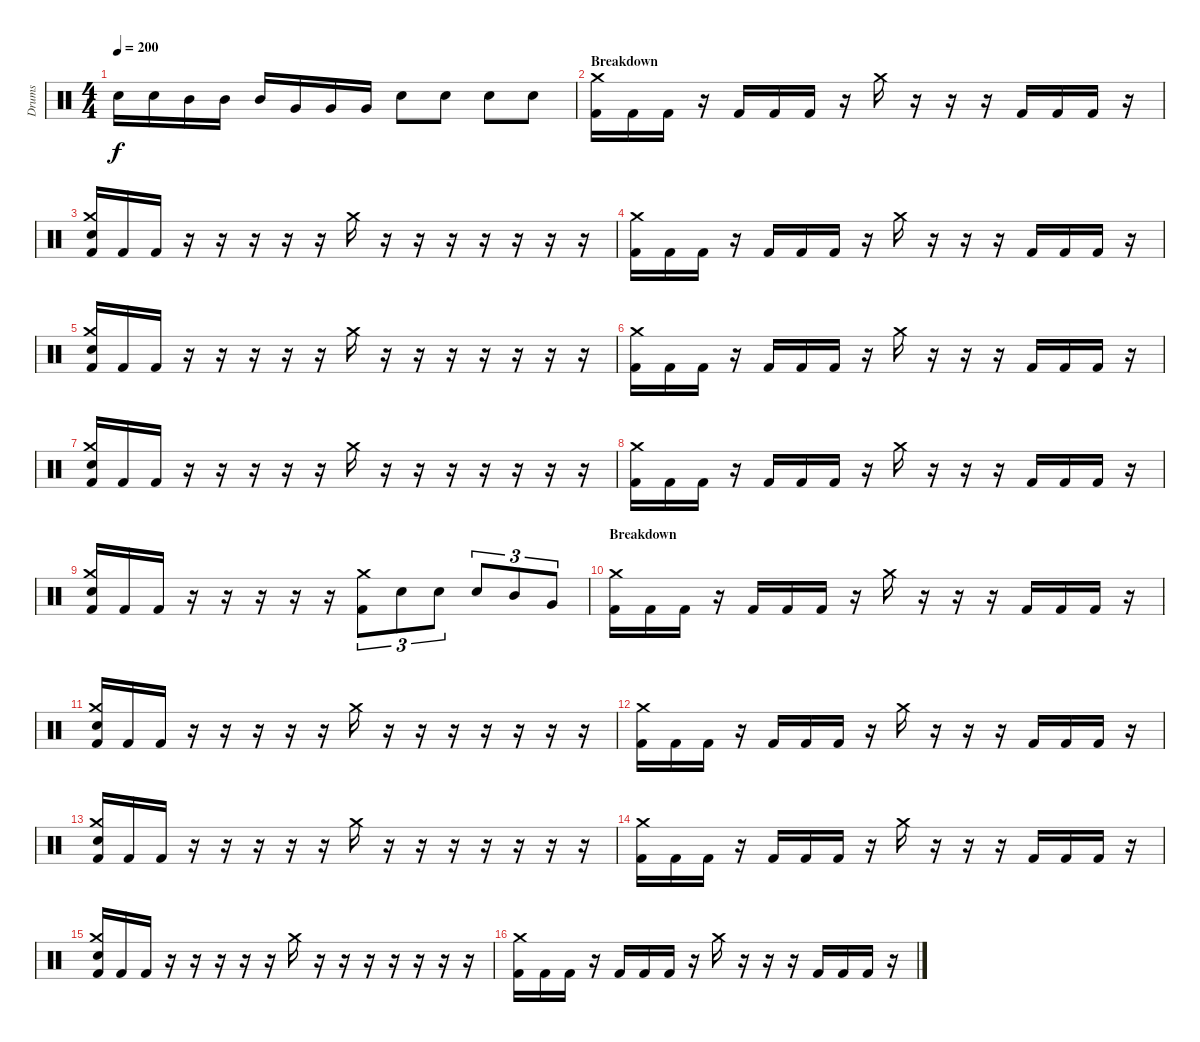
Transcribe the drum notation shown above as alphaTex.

\track ("Drums" "Drums") {instrument percussion}
\staff {score}
\articulation defaults
\ts (4 4)
\tempo 200
\clef neutral
\ks c "Electric Snare (hit)".16{dy f} "Electric Snare (hit)".16 "Mid Tom (hit)".16 "Mid Tom (hit)".16 "Mid Tom (hit)".16 "Very Low Tom (hit)".16 "Very Low Tom (hit)".16 "Very Low Tom (hit)".16 "Electric Snare (hit)".8 "Electric Snare (hit)".8 "Electric Snare (hit)".8 "Electric Snare (hit)".8
|
\section ("" "Breakdown ")
("Crash medium (hit)" "Kick (hit) 2").16 "Kick (hit) 2".16 "Kick (hit) 2".16 r.16 "Kick (hit) 2".16 "Kick (hit) 2".16 "Kick (hit) 2".16 r.16 "Crash medium (hit)".16 r.16 r.16 r.16 "Kick (hit) 2".16 "Kick (hit) 2".16 "Kick (hit) 2".16 r.16 |
("Crash medium (hit)" "Electric Snare (hit)" "Kick (hit) 2").16 "Kick (hit) 2".16 "Kick (hit) 2".16 r.16 r.16 r.16 r.16 r.16 "Crash medium (hit)".16 r.16 r.16 r.16 r.16 r.16 r.16 r.16 |
("Crash medium (hit)" "Kick (hit) 2").16 "Kick (hit) 2".16 "Kick (hit) 2".16 r.16 "Kick (hit) 2".16 "Kick (hit) 2".16 "Kick (hit) 2".16 r.16 "Crash medium (hit)".16 r.16 r.16 r.16 "Kick (hit) 2".16 "Kick (hit) 2".16 "Kick (hit) 2".16 r.16 |
("Crash medium (hit)" "Electric Snare (hit)" "Kick (hit) 2").16 "Kick (hit) 2".16 "Kick (hit) 2".16 r.16 r.16 r.16 r.16 r.16 "Crash medium (hit)".16 r.16 r.16 r.16 r.16 r.16 r.16 r.16 |
("Crash medium (hit)" "Kick (hit) 2").16 "Kick (hit) 2".16 "Kick (hit) 2".16 r.16 "Kick (hit) 2".16 "Kick (hit) 2".16 "Kick (hit) 2".16 r.16 "Crash medium (hit)".16 r.16 r.16 r.16 "Kick (hit) 2".16 "Kick (hit) 2".16 "Kick (hit) 2".16 r.16 |
("Crash medium (hit)" "Electric Snare (hit)" "Kick (hit) 2").16 "Kick (hit) 2".16 "Kick (hit) 2".16 r.16 r.16 r.16 r.16 r.16 "Crash medium (hit)".16 r.16 r.16 r.16 r.16 r.16 r.16 r.16 |
("Crash medium (hit)" "Kick (hit) 2").16 "Kick (hit) 2".16 "Kick (hit) 2".16 r.16 "Kick (hit) 2".16 "Kick (hit) 2".16 "Kick (hit) 2".16 r.16 "Crash medium (hit)".16 r.16 r.16 r.16 "Kick (hit) 2".16 "Kick (hit) 2".16 "Kick (hit) 2".16 r.16 |
("Crash medium (hit)" "Electric Snare (hit)" "Kick (hit) 2").16 "Kick (hit) 2".16 "Kick (hit) 2".16 r.16 r.16 r.16 r.16 r.16 ("Crash medium (hit)" "Kick (hit) 2").8{tu (3 2)} "Electric Snare (hit)".8{tu (3 2)} "Electric Snare (hit)".8{tu (3 2)} "Electric Snare (hit)".8{tu (3 2)} "Mid Tom (hit)".8{tu (3 2)} "Very Low Tom (hit)".8{tu (3 2)} |
\section ("" "Breakdown ")
("Crash medium (hit)" "Kick (hit) 2").16 "Kick (hit) 2".16 "Kick (hit) 2".16 r.16 "Kick (hit) 2".16 "Kick (hit) 2".16 "Kick (hit) 2".16 r.16 "Crash medium (hit)".16 r.16 r.16 r.16 "Kick (hit) 2".16 "Kick (hit) 2".16 "Kick (hit) 2".16 r.16 |
("Crash medium (hit)" "Electric Snare (hit)" "Kick (hit) 2").16 "Kick (hit) 2".16 "Kick (hit) 2".16 r.16 r.16 r.16 r.16 r.16 "Crash medium (hit)".16 r.16 r.16 r.16 r.16 r.16 r.16 r.16 |
("Crash medium (hit)" "Kick (hit) 2").16 "Kick (hit) 2".16 "Kick (hit) 2".16 r.16 "Kick (hit) 2".16 "Kick (hit) 2".16 "Kick (hit) 2".16 r.16 "Crash medium (hit)".16 r.16 r.16 r.16 "Kick (hit) 2".16 "Kick (hit) 2".16 "Kick (hit) 2".16 r.16 |
("Crash medium (hit)" "Electric Snare (hit)" "Kick (hit) 2").16 "Kick (hit) 2".16 "Kick (hit) 2".16 r.16 r.16 r.16 r.16 r.16 "Crash medium (hit)".16 r.16 r.16 r.16 r.16 r.16 r.16 r.16 |
("Crash medium (hit)" "Kick (hit) 2").16 "Kick (hit) 2".16 "Kick (hit) 2".16 r.16 "Kick (hit) 2".16 "Kick (hit) 2".16 "Kick (hit) 2".16 r.16 "Crash medium (hit)".16 r.16 r.16 r.16 "Kick (hit) 2".16 "Kick (hit) 2".16 "Kick (hit) 2".16 r.16 |
("Crash medium (hit)" "Electric Snare (hit)" "Kick (hit) 2").16 "Kick (hit) 2".16 "Kick (hit) 2".16 r.16 r.16 r.16 r.16 r.16 "Crash medium (hit)".16 r.16 r.16 r.16 r.16 r.16 r.16 r.16 |
("Crash medium (hit)" "Kick (hit) 2").16 "Kick (hit) 2".16 "Kick (hit) 2".16 r.16 "Kick (hit) 2".16 "Kick (hit) 2".16 "Kick (hit) 2".16 r.16 "Crash medium (hit)".16 r.16 r.16 r.16 "Kick (hit) 2".16 "Kick (hit) 2".16 "Kick (hit) 2".16 r.16
